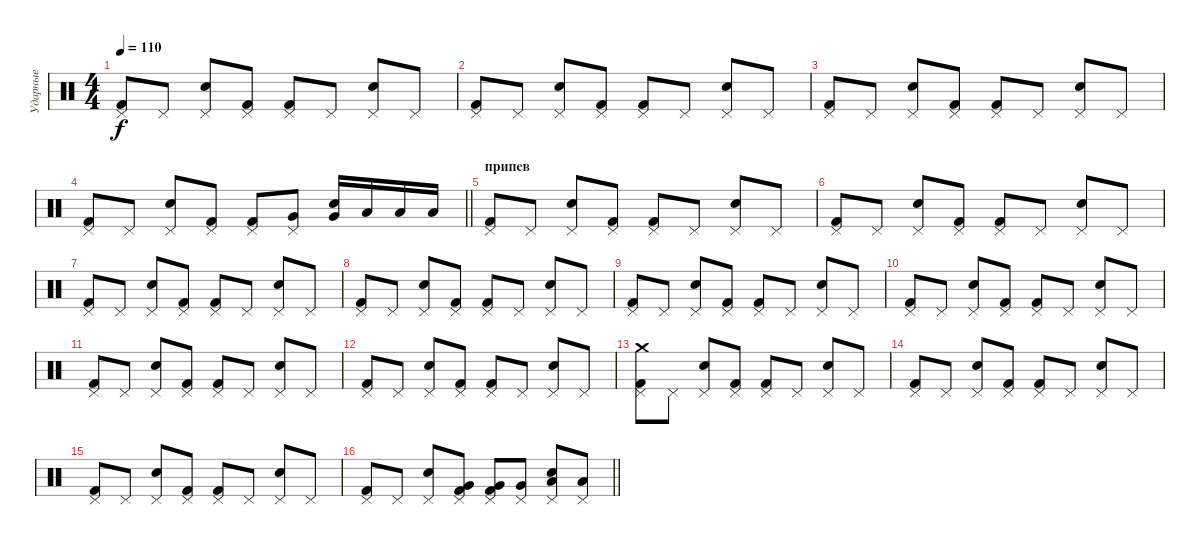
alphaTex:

\track ("Ударные" "Ударные") {instrument percussion}
\staff {score}
\articulation defaults
\ts (4 4)
\tempo 110
\clef neutral
\ks c
("Pedal Hi-Hat (hit)" "Kick (hit) 2").8{dy f} "Pedal Hi-Hat (hit)".8 ("Pedal Hi-Hat (hit)" "Electric Snare (hit)").8 ("Pedal Hi-Hat (hit)" "Kick (hit) 2").8 ("Pedal Hi-Hat (hit)" "Kick (hit) 2").8 "Pedal Hi-Hat (hit)".8 ("Pedal Hi-Hat (hit)" "Electric Snare (hit)").8 "Pedal Hi-Hat (hit)".8 |
("Pedal Hi-Hat (hit)" "Kick (hit) 2").8 "Pedal Hi-Hat (hit)".8 ("Pedal Hi-Hat (hit)" "Electric Snare (hit)").8 ("Pedal Hi-Hat (hit)" "Kick (hit) 2").8 ("Pedal Hi-Hat (hit)" "Kick (hit) 2").8 "Pedal Hi-Hat (hit)".8 ("Pedal Hi-Hat (hit)" "Electric Snare (hit)").8 "Pedal Hi-Hat (hit)".8 |
("Pedal Hi-Hat (hit)" "Kick (hit) 2").8 "Pedal Hi-Hat (hit)".8 ("Pedal Hi-Hat (hit)" "Electric Snare (hit)").8 ("Pedal Hi-Hat (hit)" "Kick (hit) 2").8 ("Pedal Hi-Hat (hit)" "Kick (hit) 2").8 "Pedal Hi-Hat (hit)".8 ("Pedal Hi-Hat (hit)" "Electric Snare (hit)").8 "Pedal Hi-Hat (hit)".8 |
\barLineRight lightlight
("Pedal Hi-Hat (hit)" "Kick (hit) 2").8 "Pedal Hi-Hat (hit)".8 ("Pedal Hi-Hat (hit)" "Electric Snare (hit)").8 ("Pedal Hi-Hat (hit)" "Kick (hit) 2").8 ("Pedal Hi-Hat (hit)" "Kick (hit) 2").8 ("Pedal Hi-Hat (hit)" "Very Low Tom (hit)").8 ("Very Low Tom (hit)" "Electric Snare (hit)").16 "Low Floor Tom (hit)".16 "Low Floor Tom (hit)".16 "Low Floor Tom (hit)".16 |
\section ("" "припев")
("Pedal Hi-Hat (hit)" "Kick (hit) 2").8 "Pedal Hi-Hat (hit)".8 ("Pedal Hi-Hat (hit)" "Electric Snare (hit)").8 ("Pedal Hi-Hat (hit)" "Kick (hit) 2").8 ("Pedal Hi-Hat (hit)" "Kick (hit) 2").8 "Pedal Hi-Hat (hit)".8 ("Pedal Hi-Hat (hit)" "Electric Snare (hit)").8 "Pedal Hi-Hat (hit)".8 |
("Pedal Hi-Hat (hit)" "Kick (hit) 2").8 "Pedal Hi-Hat (hit)".8 ("Pedal Hi-Hat (hit)" "Electric Snare (hit)").8 ("Pedal Hi-Hat (hit)" "Kick (hit) 2").8 ("Pedal Hi-Hat (hit)" "Kick (hit) 2").8 "Pedal Hi-Hat (hit)".8 ("Pedal Hi-Hat (hit)" "Electric Snare (hit)").8 "Pedal Hi-Hat (hit)".8 |
("Pedal Hi-Hat (hit)" "Kick (hit) 2").8 "Pedal Hi-Hat (hit)".8 ("Pedal Hi-Hat (hit)" "Electric Snare (hit)").8 ("Pedal Hi-Hat (hit)" "Kick (hit) 2").8 ("Pedal Hi-Hat (hit)" "Kick (hit) 2").8 "Pedal Hi-Hat (hit)".8 ("Pedal Hi-Hat (hit)" "Electric Snare (hit)").8 "Pedal Hi-Hat (hit)".8 |
("Pedal Hi-Hat (hit)" "Kick (hit) 2").8 "Pedal Hi-Hat (hit)".8 ("Pedal Hi-Hat (hit)" "Electric Snare (hit)").8 ("Pedal Hi-Hat (hit)" "Kick (hit) 2").8 ("Pedal Hi-Hat (hit)" "Kick (hit) 2").8 "Pedal Hi-Hat (hit)".8 ("Pedal Hi-Hat (hit)" "Electric Snare (hit)").8 "Pedal Hi-Hat (hit)".8 |
("Pedal Hi-Hat (hit)" "Kick (hit) 2").8 "Pedal Hi-Hat (hit)".8 ("Pedal Hi-Hat (hit)" "Electric Snare (hit)").8 ("Pedal Hi-Hat (hit)" "Kick (hit) 2").8 ("Pedal Hi-Hat (hit)" "Kick (hit) 2").8 "Pedal Hi-Hat (hit)".8 ("Pedal Hi-Hat (hit)" "Electric Snare (hit)").8 "Pedal Hi-Hat (hit)".8 |
("Pedal Hi-Hat (hit)" "Kick (hit) 2").8 "Pedal Hi-Hat (hit)".8 ("Pedal Hi-Hat (hit)" "Electric Snare (hit)").8 ("Pedal Hi-Hat (hit)" "Kick (hit) 2").8 ("Pedal Hi-Hat (hit)" "Kick (hit) 2").8 "Pedal Hi-Hat (hit)".8 ("Pedal Hi-Hat (hit)" "Electric Snare (hit)").8 "Pedal Hi-Hat (hit)".8 |
("Pedal Hi-Hat (hit)" "Kick (hit) 2").8 "Pedal Hi-Hat (hit)".8 ("Pedal Hi-Hat (hit)" "Electric Snare (hit)").8 ("Pedal Hi-Hat (hit)" "Kick (hit) 2").8 ("Pedal Hi-Hat (hit)" "Kick (hit) 2").8 "Pedal Hi-Hat (hit)".8 ("Pedal Hi-Hat (hit)" "Electric Snare (hit)").8 "Pedal Hi-Hat (hit)".8 |
("Pedal Hi-Hat (hit)" "Kick (hit) 2").8 "Pedal Hi-Hat (hit)".8 ("Pedal Hi-Hat (hit)" "Electric Snare (hit)").8 ("Pedal Hi-Hat (hit)" "Kick (hit) 2").8 ("Pedal Hi-Hat (hit)" "Kick (hit) 2").8 "Pedal Hi-Hat (hit)".8 ("Pedal Hi-Hat (hit)" "Electric Snare (hit)").8 "Pedal Hi-Hat (hit)".8 |
("Crash medium (hit)" "Pedal Hi-Hat (hit)" "Kick (hit) 2").8 "Pedal Hi-Hat (hit)".8 ("Pedal Hi-Hat (hit)" "Electric Snare (hit)").8 ("Pedal Hi-Hat (hit)" "Kick (hit) 2").8 ("Pedal Hi-Hat (hit)" "Kick (hit) 2").8 "Pedal Hi-Hat (hit)".8 ("Pedal Hi-Hat (hit)" "Electric Snare (hit)").8 "Pedal Hi-Hat (hit)".8 |
("Pedal Hi-Hat (hit)" "Kick (hit) 2").8 "Pedal Hi-Hat (hit)".8 ("Pedal Hi-Hat (hit)" "Electric Snare (hit)").8 ("Pedal Hi-Hat (hit)" "Kick (hit) 2").8 ("Pedal Hi-Hat (hit)" "Kick (hit) 2").8 "Pedal Hi-Hat (hit)".8 ("Pedal Hi-Hat (hit)" "Electric Snare (hit)").8 "Pedal Hi-Hat (hit)".8 |
("Pedal Hi-Hat (hit)" "Kick (hit) 2").8 "Pedal Hi-Hat (hit)".8 ("Pedal Hi-Hat (hit)" "Electric Snare (hit)").8 ("Pedal Hi-Hat (hit)" "Kick (hit) 2").8 ("Pedal Hi-Hat (hit)" "Kick (hit) 2").8 "Pedal Hi-Hat (hit)".8 ("Pedal Hi-Hat (hit)" "Electric Snare (hit)").8 "Pedal Hi-Hat (hit)".8 |
\barLineRight lightlight
("Pedal Hi-Hat (hit)" "Kick (hit) 2").8 "Pedal Hi-Hat (hit)".8 ("Pedal Hi-Hat (hit)" "Electric Snare (hit)").8 ("Pedal Hi-Hat (hit)" "Very Low Tom (hit)" "Kick (hit) 2").8 ("Pedal Hi-Hat (hit)" "Very Low Tom (hit)" "Kick (hit) 2").8 ("Pedal Hi-Hat (hit)" "Very Low Tom (hit)").8 ("Pedal Hi-Hat (hit)" "Low Floor Tom (hit)" "Electric Snare (hit)").8 ("Pedal Hi-Hat (hit)" "Low Floor Tom (hit)").8
